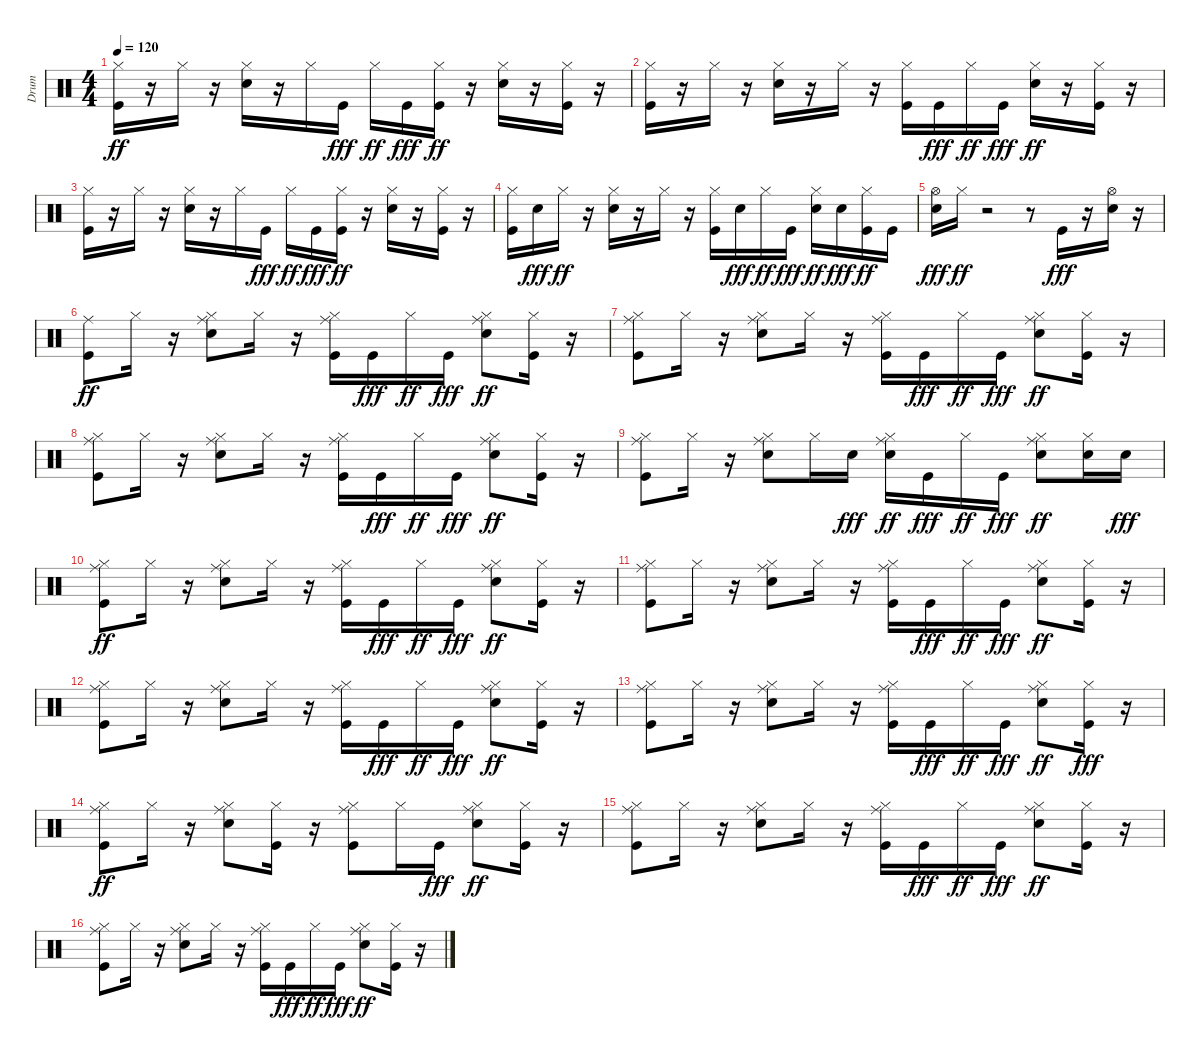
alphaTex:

\track ("Drum" "Drum") {instrument percussion}
\staff {score}
\articulation defaults
\ts (4 4)
\tempo 120
\clef neutral
\ks c
("Kick (hit)" "Hi-Hat (closed)").16{dy ff} r.16 "Hi-Hat (closed)".16 r.16 ("Electric Snare (hit)" "Hi-Hat (closed)").16 r.16 "Hi-Hat (closed)".16 "Kick (hit)".16{dy fff} "Hi-Hat (closed)".16{dy ff} "Kick (hit)".16{dy fff} ("Kick (hit)" "Hi-Hat (closed)").16{dy ff} r.16 ("Electric Snare (hit)" "Hi-Hat (closed)").16 r.16 ("Kick (hit)" "Hi-Hat (closed)").16 r.16 |
("Kick (hit)" "Hi-Hat (closed)").16 r.16 "Hi-Hat (closed)".16 r.16 ("Electric Snare (hit)" "Hi-Hat (closed)").16 r.16 "Hi-Hat (closed)".16 r.16 ("Kick (hit)" "Hi-Hat (closed)").16 "Kick (hit)".16{dy fff} "Hi-Hat (closed)".16{dy ff} "Kick (hit)".16{dy fff} ("Electric Snare (hit)" "Hi-Hat (closed)").16{dy ff} r.16 ("Kick (hit)" "Hi-Hat (closed)").16 r.16 |
("Kick (hit)" "Hi-Hat (closed)").16 r.16 "Hi-Hat (closed)".16 r.16 ("Electric Snare (hit)" "Hi-Hat (closed)").16 r.16 "Hi-Hat (closed)".16 "Kick (hit)".16{dy fff} "Hi-Hat (closed)".16{dy ff} "Kick (hit)".16{dy fff} ("Kick (hit)" "Hi-Hat (closed)").16{dy ff} r.16 ("Electric Snare (hit)" "Hi-Hat (closed)").16 r.16 ("Kick (hit)" "Hi-Hat (closed)").16 r.16 |
("Kick (hit)" "Hi-Hat (closed)").16 "Electric Snare (hit)".16{dy fff} "Hi-Hat (closed)".16{dy ff} r.16 ("Electric Snare (hit)" "Hi-Hat (closed)").16 r.16 "Hi-Hat (closed)".16 r.16 ("Kick (hit)" "Hi-Hat (closed)").16 "Electric Snare (hit)".16{dy fff} "Hi-Hat (closed)".16{dy ff} "Kick (hit)".16{dy fff} ("Electric Snare (hit)" "Hi-Hat (closed)").16{dy ff} "Electric Snare (hit)".16{dy fff} ("Kick (hit)" "Hi-Hat (closed)").16{dy ff} "Kick (hit)".16 |
("Hi-Hat (open)" "Electric Snare (hit)").16{dy fff} "Hi-Hat (closed)".16{dy ff} r.2 r.8 "Kick (hit)".16{dy fff} r.16 ("Hi-Hat (open)" "Electric Snare (hit)").16 r.16 |
("Kick (hit)" "Ride (middle)").8{dy ff} "Hi-Hat (closed)".16 r.16 ("Electric Snare (hit)" "Hi-Hat (closed)" "Ride (middle)").8 "Hi-Hat (closed)".16 r.16 ("Kick (hit)" "Hi-Hat (closed)" "Ride (middle)").16 "Kick (hit)".16{dy fff} "Hi-Hat (closed)".16{dy ff} "Kick (hit)".16{dy fff} ("Electric Snare (hit)" "Hi-Hat (closed)" "Ride (middle)").8{dy ff} ("Kick (hit)" "Hi-Hat (closed)").16 r.16 |
("Kick (hit)" "Hi-Hat (closed)" "Ride (middle)").8 "Hi-Hat (closed)".16 r.16 ("Electric Snare (hit)" "Hi-Hat (closed)" "Ride (middle)").8 "Hi-Hat (closed)".16 r.16 ("Kick (hit)" "Hi-Hat (closed)" "Ride (middle)").16 "Kick (hit)".16{dy fff} "Hi-Hat (closed)".16{dy ff} "Kick (hit)".16{dy fff} ("Electric Snare (hit)" "Hi-Hat (closed)" "Ride (middle)").8{dy ff} ("Kick (hit)" "Hi-Hat (closed)").16 r.16 |
("Kick (hit)" "Hi-Hat (closed)" "Ride (middle)").8 "Hi-Hat (closed)".16 r.16 ("Electric Snare (hit)" "Hi-Hat (closed)" "Ride (middle)").8 "Hi-Hat (closed)".16 r.16 ("Kick (hit)" "Hi-Hat (closed)" "Ride (middle)").16 "Kick (hit)".16{dy fff} "Hi-Hat (closed)".16{dy ff} "Kick (hit)".16{dy fff} ("Electric Snare (hit)" "Hi-Hat (closed)" "Ride (middle)").8{dy ff} ("Kick (hit)" "Hi-Hat (closed)").16 r.16 |
("Kick (hit)" "Hi-Hat (closed)" "Ride (middle)").8 "Hi-Hat (closed)".16 r.16 ("Electric Snare (hit)" "Hi-Hat (closed)" "Ride (middle)").8 "Hi-Hat (closed)".16 "Electric Snare (hit)".16{dy fff} ("Electric Snare (hit)" "Hi-Hat (closed)" "Ride (middle)").16{dy ff} "Kick (hit)".16{dy fff} "Hi-Hat (closed)".16{dy ff} "Kick (hit)".16{dy fff} ("Electric Snare (hit)" "Hi-Hat (closed)" "Ride (middle)").8{dy ff} ("Electric Snare (hit)" "Hi-Hat (closed)").16 "Electric Snare (hit)".16{dy fff} |
("Kick (hit)" "Hi-Hat (closed)" "Ride (middle)").8{dy ff} "Hi-Hat (closed)".16 r.16 ("Electric Snare (hit)" "Hi-Hat (closed)" "Ride (middle)").8 "Hi-Hat (closed)".16 r.16 ("Kick (hit)" "Hi-Hat (closed)" "Ride (middle)").16 "Kick (hit)".16{dy fff} "Hi-Hat (closed)".16{dy ff} "Kick (hit)".16{dy fff} ("Electric Snare (hit)" "Hi-Hat (closed)" "Ride (middle)").8{dy ff} ("Kick (hit)" "Hi-Hat (closed)").16 r.16 |
("Kick (hit)" "Hi-Hat (closed)" "Ride (middle)").8 "Hi-Hat (closed)".16 r.16 ("Electric Snare (hit)" "Hi-Hat (closed)" "Ride (middle)").8 "Hi-Hat (closed)".16 r.16 ("Kick (hit)" "Hi-Hat (closed)" "Ride (middle)").16 "Kick (hit)".16{dy fff} "Hi-Hat (closed)".16{dy ff} "Kick (hit)".16{dy fff} ("Electric Snare (hit)" "Hi-Hat (closed)" "Ride (middle)").8{dy ff} ("Kick (hit)" "Hi-Hat (closed)").16 r.16 |
("Kick (hit)" "Hi-Hat (closed)" "Ride (middle)").8 "Hi-Hat (closed)".16 r.16 ("Electric Snare (hit)" "Hi-Hat (closed)" "Ride (middle)").8 "Hi-Hat (closed)".16 r.16 ("Kick (hit)" "Hi-Hat (closed)" "Ride (middle)").16 "Kick (hit)".16{dy fff} "Hi-Hat (closed)".16{dy ff} "Kick (hit)".16{dy fff} ("Electric Snare (hit)" "Hi-Hat (closed)" "Ride (middle)").8{dy ff} ("Kick (hit)" "Hi-Hat (closed)").16 r.16 |
("Kick (hit)" "Hi-Hat (closed)" "Ride (middle)").8 "Hi-Hat (closed)".16 r.16 ("Electric Snare (hit)" "Hi-Hat (closed)" "Ride (middle)").8 "Hi-Hat (closed)".16 r.16 ("Kick (hit)" "Hi-Hat (closed)" "Ride (middle)").16 "Kick (hit)".16{dy fff} "Hi-Hat (closed)".16{dy ff} "Kick (hit)".16{dy fff} ("Electric Snare (hit)" "Hi-Hat (closed)" "Ride (middle)").8{dy ff} ("Hi-Hat (closed)" "Kick (hit)").16{dy fff} r.16 |
("Kick (hit)" "Hi-Hat (closed)" "Ride (middle)").8{dy ff} "Hi-Hat (closed)".16 r.16 ("Electric Snare (hit)" "Hi-Hat (closed)" "Ride (middle)").8 ("Kick (hit)" "Hi-Hat (closed)").16 r.16 ("Kick (hit)" "Hi-Hat (closed)" "Ride (middle)").8 "Hi-Hat (closed)".16 "Kick (hit)".16{dy fff} ("Electric Snare (hit)" "Hi-Hat (closed)" "Ride (middle)").8{dy ff} ("Kick (hit)" "Hi-Hat (closed)").16 r.16 |
("Kick (hit)" "Hi-Hat (closed)" "Ride (middle)").8 "Hi-Hat (closed)".16 r.16 ("Electric Snare (hit)" "Hi-Hat (closed)" "Ride (middle)").8 "Hi-Hat (closed)".16 r.16 ("Kick (hit)" "Hi-Hat (closed)" "Ride (middle)").16 "Kick (hit)".16{dy fff} "Hi-Hat (closed)".16{dy ff} "Kick (hit)".16{dy fff} ("Electric Snare (hit)" "Hi-Hat (closed)" "Ride (middle)").8{dy ff} ("Kick (hit)" "Hi-Hat (closed)").16 r.16 |
("Kick (hit)" "Hi-Hat (closed)" "Ride (middle)").8 "Hi-Hat (closed)".16 r.16 ("Electric Snare (hit)" "Hi-Hat (closed)" "Ride (middle)").8 "Hi-Hat (closed)".16 r.16 ("Kick (hit)" "Hi-Hat (closed)" "Ride (middle)").16 "Kick (hit)".16{dy fff} "Hi-Hat (closed)".16{dy ff} "Kick (hit)".16{dy fff} ("Electric Snare (hit)" "Hi-Hat (closed)" "Ride (middle)").8{dy ff} ("Kick (hit)" "Hi-Hat (closed)").16 r.16
